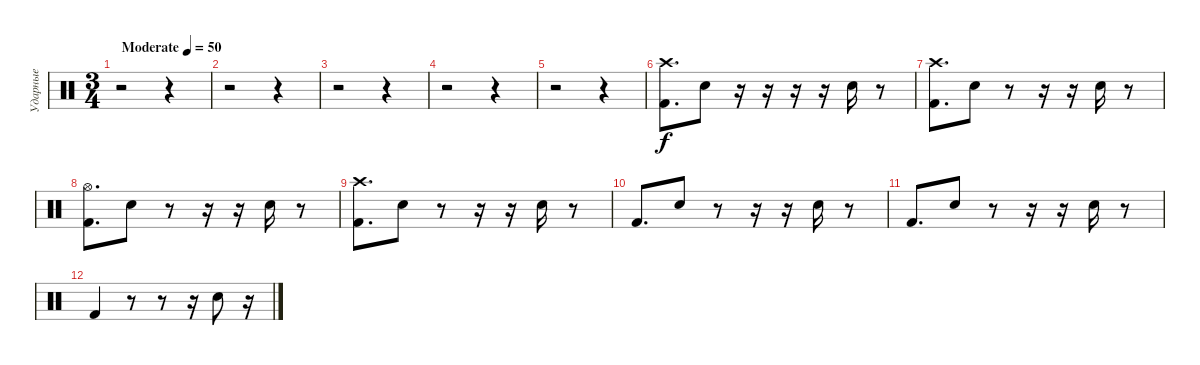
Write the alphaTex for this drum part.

\track ("Ударные" "Ударные") {instrument percussion}
\staff {score}
\articulation defaults
\ts (3 4)
\tempo (50 "Moderate")
\clef neutral
\ks c
r.2{dy f} r.4 |
r.2 r.4 |
r.2 r.4 |
r.2 r.4 |
r.2 r.4 |
("Crash high (hit)" "Kick (hit) 2").8{d} "Snare (hit) 2".8 r.16 r.16 r.16 r.16 "Snare (hit) 2".16 r.8 |
("Crash high (hit)" "Kick (hit) 2").8{d} "Snare (hit) 2".8 r.8 r.16 r.16 "Snare (hit) 2".16 r.8 |
("Hi-Hat (open)" "Kick (hit) 2").8{d} "Snare (hit) 2".8 r.8 r.16 r.16 "Snare (hit) 2".16 r.8 |
("Crash high (hit)" "Kick (hit) 2").8{d} "Snare (hit) 2".8 r.8 r.16 r.16 "Snare (hit) 2".16 r.8 |
"Kick (hit) 2".8{d} "Snare (hit) 2".8 r.8 r.16 r.16 "Snare (hit) 2".16 r.8 |
"Kick (hit) 2".8{d} "Snare (hit) 2".8 r.8 r.16 r.16 "Snare (hit) 2".16 r.8 |
"Kick (hit) 2".4 r.8 r.8 r.16 "Snare (hit) 2".8 r.16
